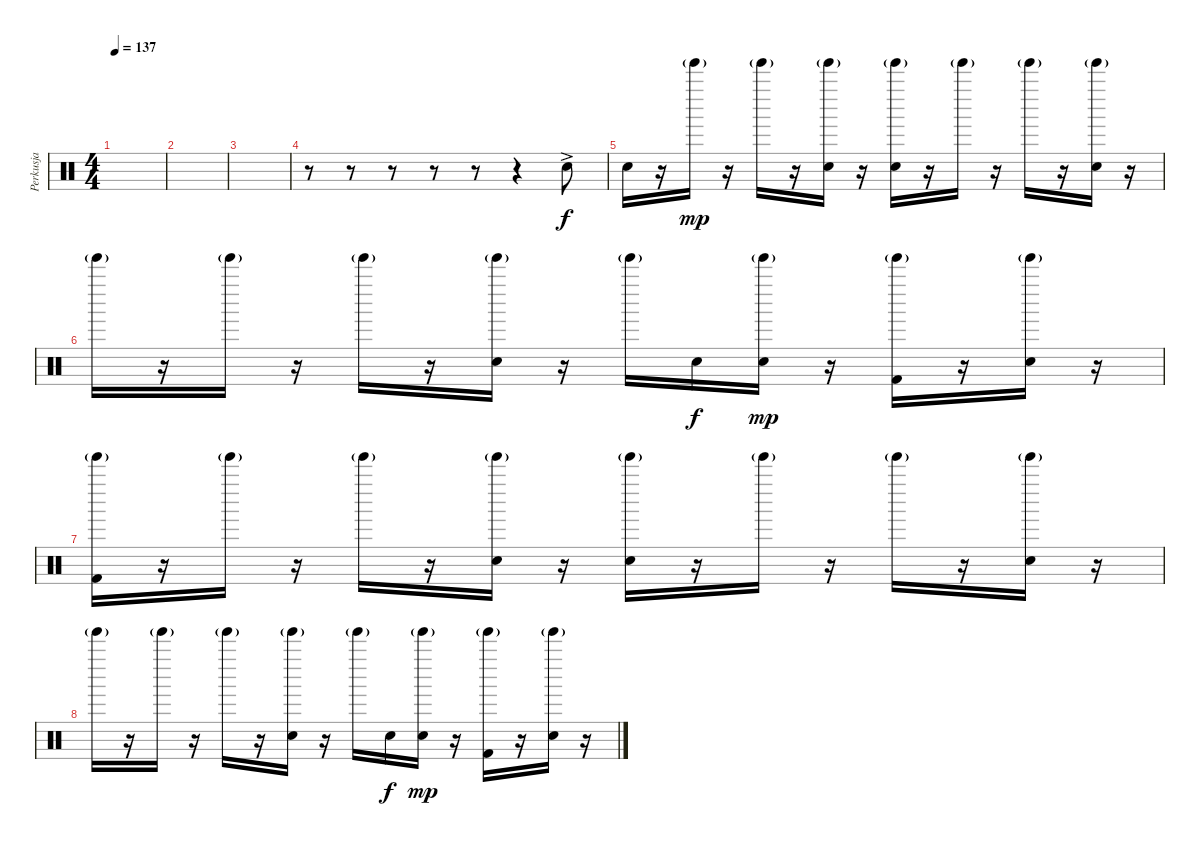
\track ("Perkusja" "Perkusja") {instrument percussion}
\staff {score}
\articulation defaults
\ts (4 4)
\tempo 137
\clef neutral
\ks c
|
|
|
r.8 r.8 r.8 r.8 r.8 r.4 "Electric Snare (hit)"{ac}.8 |
"Electric Snare (hit)".16{dy f} r.16 "Tinkle Bell (hit)"{g}.16{dy mp} r.16 "Tinkle Bell (hit)"{g}.16 r.16 ("Electric Snare (hit)" "Tinkle Bell (hit)"{g}).16 r.16 ("Electric Snare (hit)" "Tinkle Bell (hit)"{g}).16 r.16 "Tinkle Bell (hit)"{g}.16 r.16 "Tinkle Bell (hit)"{g}.16 r.16 ("Electric Snare (hit)" "Tinkle Bell (hit)"{g}).16 r.16 |
"Tinkle Bell (hit)"{g}.16 r.16 "Tinkle Bell (hit)"{g}.16 r.16 "Tinkle Bell (hit)"{g}.16 r.16 ("Electric Snare (hit)" "Tinkle Bell (hit)"{g}).16 r.16 "Tinkle Bell (hit)"{g}.16 "Electric Snare (hit)".16{dy f} ("Electric Snare (hit)" "Tinkle Bell (hit)"{g}).16{dy mp} r.16 ("Kick (hit) 2" "Tinkle Bell (hit)"{g}).16 r.16 ("Electric Snare (hit)" "Tinkle Bell (hit)"{g}).16 r.16 |
("Kick (hit) 2" "Tinkle Bell (hit)"{g}).16 r.16 "Tinkle Bell (hit)"{g}.16 r.16 "Tinkle Bell (hit)"{g}.16 r.16 ("Electric Snare (hit)" "Tinkle Bell (hit)"{g}).16 r.16 ("Electric Snare (hit)" "Tinkle Bell (hit)"{g}).16 r.16 "Tinkle Bell (hit)"{g}.16 r.16 "Tinkle Bell (hit)"{g}.16 r.16 ("Electric Snare (hit)" "Tinkle Bell (hit)"{g}).16 r.16 |
"Tinkle Bell (hit)"{g}.16 r.16 "Tinkle Bell (hit)"{g}.16 r.16 "Tinkle Bell (hit)"{g}.16 r.16 ("Electric Snare (hit)" "Tinkle Bell (hit)"{g}).16 r.16 "Tinkle Bell (hit)"{g}.16 "Electric Snare (hit)".16{dy f} ("Electric Snare (hit)" "Tinkle Bell (hit)"{g}).16{dy mp} r.16 ("Kick (hit) 2" "Tinkle Bell (hit)"{g}).16 r.16 ("Electric Snare (hit)" "Tinkle Bell (hit)"{g}).16 r.16
